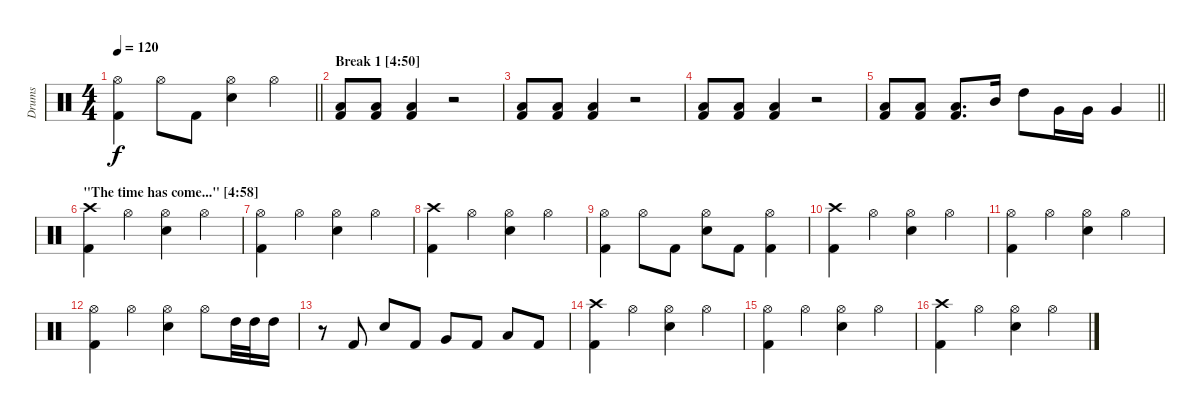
\track ("Drums" "Drums") {instrument percussion}
\staff {score}
\articulation defaults
\ts (4 4)
\tempo 120
\clef neutral
\barLineRight lightlight
\ks c
("Hi-Hat (open)" "Kick (hit) 2").4{dy f} "Hi-Hat (open)".8 "Kick (hit) 2".8 ("Hi-Hat (open)" "Snare (hit) 2").4 "Hi-Hat (open)".4 |
\section ("" "Break 1 [4:50]")
("Low Tom (hit)" "Kick (hit) 2").8 ("Low Tom (hit)" "Kick (hit) 2").8 ("Low Tom (hit)" "Kick (hit) 2").4 r.2 |
("Low Tom (hit)" "Kick (hit) 2").8 ("Low Tom (hit)" "Kick (hit) 2").8 ("Low Tom (hit)" "Kick (hit) 2").4 r.2 |
("Low Tom (hit)" "Kick (hit) 2").8 ("Low Tom (hit)" "Kick (hit) 2").8 ("Low Tom (hit)" "Kick (hit) 2").4 r.2 |
\barLineRight lightlight
("Low Tom (hit)" "Kick (hit) 2").8 ("Low Tom (hit)" "Kick (hit) 2").8 ("Low Tom (hit)" "Kick (hit) 2").8{d} "Mid Tom (hit)".16 "High Tom (hit)".8 "Very Low Tom (hit)".16 "Very Low Tom (hit)".16 "Very Low Tom (hit)".4 |
\section ("" "\"The time has come...\" [4:58]")
("Crash high (hit)" "Kick (hit) 2").4 "Hi-Hat (open)".4 ("Hi-Hat (open)" "Snare (hit) 2").4 "Hi-Hat (open)".4 |
("Hi-Hat (open)" "Kick (hit) 2").4 "Hi-Hat (open)".4 ("Hi-Hat (open)" "Snare (hit) 2").4 "Hi-Hat (open)".4 |
("Crash high (hit)" "Kick (hit) 2").4 "Hi-Hat (open)".4 ("Hi-Hat (open)" "Snare (hit) 2").4 "Hi-Hat (open)".4 |
("Hi-Hat (open)" "Kick (hit) 2").4 "Hi-Hat (open)".8 "Kick (hit) 2".8 ("Hi-Hat (open)" "Snare (hit) 2").8 "Kick (hit) 2".8 ("Hi-Hat (open)" "Kick (hit) 2").4 |
("Crash high (hit)" "Kick (hit) 2").4 "Hi-Hat (open)".4 ("Hi-Hat (open)" "Snare (hit) 2").4 "Hi-Hat (open)".4 |
("Hi-Hat (open)" "Kick (hit) 2").4 "Hi-Hat (open)".4 ("Hi-Hat (open)" "Snare (hit) 2").4 "Hi-Hat (open)".4 |
("Hi-Hat (open)" "Kick (hit) 2").4 "Hi-Hat (open)".4 ("Hi-Hat (open)" "Snare (hit) 2").4 "Hi-Hat (open)".8 "High Tom (hit)".32 "High Tom (hit)".32 "High Tom (hit)".16 |
r.8 "Kick (hit) 2".8 "Snare (hit) 2".8 "Kick (hit) 2".8 "Very Low Tom (hit)".8 "Kick (hit) 2".8 "Low Floor Tom (hit)".8 "Kick (hit) 2".8 |
("Crash high (hit)" "Kick (hit) 2").4 "Hi-Hat (open)".4 ("Hi-Hat (open)" "Snare (hit) 2").4 "Hi-Hat (open)".4 |
("Hi-Hat (open)" "Kick (hit) 2").4 "Hi-Hat (open)".4 ("Hi-Hat (open)" "Snare (hit) 2").4 "Hi-Hat (open)".4 |
("Crash high (hit)" "Kick (hit) 2").4 "Hi-Hat (open)".4 ("Hi-Hat (open)" "Snare (hit) 2").4 "Hi-Hat (open)".4
